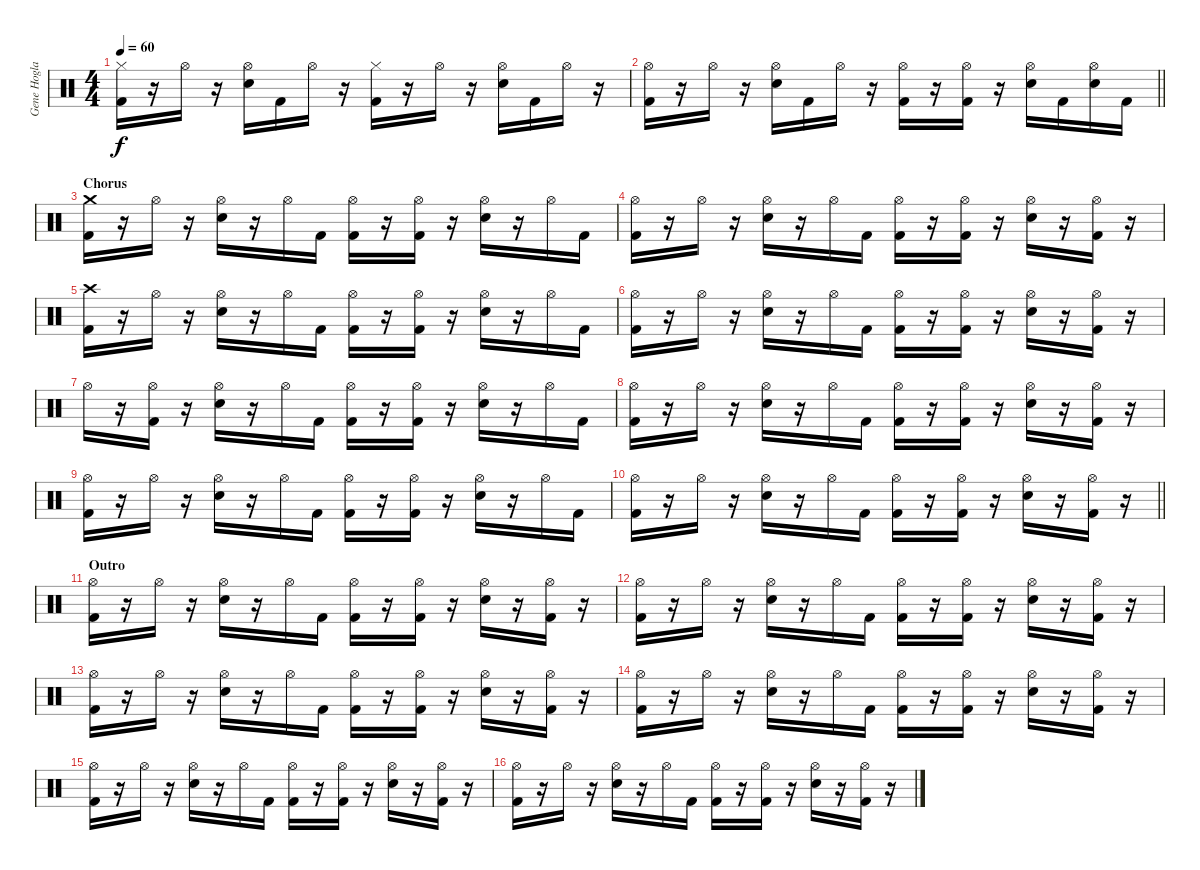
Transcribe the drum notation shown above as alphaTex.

\track ("Gene Hoglan" "Gene Hogla") {instrument percussion}
\staff {score}
\articulation defaults
\ts (4 4)
\tempo 60
\clef neutral
\ks c
("Hi-Hat (closed)" "Kick (hit) 2").16{dy f} r.16 "Hi-Hat (open)".16 r.16 ("Hi-Hat (open)" "Snare (hit) 2").16 "Kick (hit) 2".16 "Hi-Hat (open)".16 r.16 ("Hi-Hat (closed)" "Kick (hit) 2").16 r.16 "Hi-Hat (open)".16 r.16 ("Hi-Hat (open)" "Snare (hit) 2").16 "Kick (hit) 2".16 "Hi-Hat (open)".16 r.16 |
\barLineRight lightlight
("Hi-Hat (open)" "Kick (hit) 2").16 r.16 "Hi-Hat (open)".16 r.16 ("Hi-Hat (open)" "Snare (hit) 2").16 "Kick (hit) 2".16 "Hi-Hat (open)".16 r.16 ("Hi-Hat (open)" "Kick (hit) 2").16 r.16 ("Hi-Hat (open)" "Kick (hit) 2").16 r.16 ("Hi-Hat (open)" "Snare (hit) 2").16 "Kick (hit) 2".16 ("Hi-Hat (open)" "Snare (hit) 2").16 "Kick (hit) 2".16 |
\section ("" "Chorus")
("Crash medium (hit)" "Kick (hit) 2").16 r.16 "Hi-Hat (open)".16 r.16 ("Hi-Hat (open)" "Snare (hit) 2").16 r.16 "Hi-Hat (open)".16 "Kick (hit) 2".16 ("Hi-Hat (open)" "Kick (hit) 2").16 r.16 ("Hi-Hat (open)" "Kick (hit) 2").16 r.16 ("Hi-Hat (open)" "Snare (hit) 2").16 r.16 "Hi-Hat (open)".16 "Kick (hit) 2".16 |
("Hi-Hat (open)" "Kick (hit) 2").16 r.16 "Hi-Hat (open)".16 r.16 ("Hi-Hat (open)" "Snare (hit) 2").16 r.16 "Hi-Hat (open)".16 "Kick (hit) 2".16 ("Hi-Hat (open)" "Kick (hit) 2").16 r.16 ("Hi-Hat (open)" "Kick (hit) 2").16 r.16 ("Hi-Hat (open)" "Snare (hit) 2").16 r.16 ("Hi-Hat (open)" "Kick (hit) 2").16 r.16 |
("Crash high (hit)" "Kick (hit) 2").16 r.16 "Hi-Hat (open)".16 r.16 ("Hi-Hat (open)" "Snare (hit) 2").16 r.16 "Hi-Hat (open)".16 "Kick (hit) 2".16 ("Hi-Hat (open)" "Kick (hit) 2").16 r.16 ("Hi-Hat (open)" "Kick (hit) 2").16 r.16 ("Hi-Hat (open)" "Snare (hit) 2").16 r.16 "Hi-Hat (open)".16 "Kick (hit) 2".16 |
("Hi-Hat (open)" "Kick (hit) 2").16 r.16 "Hi-Hat (open)".16 r.16 ("Hi-Hat (open)" "Snare (hit) 2").16 r.16 "Hi-Hat (open)".16 "Kick (hit) 2".16 ("Hi-Hat (open)" "Kick (hit) 2").16 r.16 ("Hi-Hat (open)" "Kick (hit) 2").16 r.16 ("Hi-Hat (open)" "Snare (hit) 2").16 r.16 ("Hi-Hat (open)" "Kick (hit) 2").16 r.16 |
"Hi-Hat (open)".16 r.16 ("Hi-Hat (open)" "Kick (hit) 2").16 r.16 ("Hi-Hat (open)" "Snare (hit) 2").16 r.16 "Hi-Hat (open)".16 "Kick (hit) 2".16 ("Hi-Hat (open)" "Kick (hit) 2").16 r.16 ("Hi-Hat (open)" "Kick (hit) 2").16 r.16 ("Hi-Hat (open)" "Snare (hit) 2").16 r.16 "Hi-Hat (open)".16 "Kick (hit) 2".16 |
("Hi-Hat (open)" "Kick (hit) 2").16 r.16 "Hi-Hat (open)".16 r.16 ("Hi-Hat (open)" "Snare (hit) 2").16 r.16 "Hi-Hat (open)".16 "Kick (hit) 2".16 ("Hi-Hat (open)" "Kick (hit) 2").16 r.16 ("Hi-Hat (open)" "Kick (hit) 2").16 r.16 ("Hi-Hat (open)" "Snare (hit) 2").16 r.16 ("Hi-Hat (open)" "Kick (hit) 2").16 r.16 |
("Hi-Hat (open)" "Kick (hit) 2").16 r.16 "Hi-Hat (open)".16 r.16 ("Hi-Hat (open)" "Snare (hit) 2").16 r.16 "Hi-Hat (open)".16 "Kick (hit) 2".16 ("Hi-Hat (open)" "Kick (hit) 2").16 r.16 ("Hi-Hat (open)" "Kick (hit) 2").16 r.16 ("Hi-Hat (open)" "Snare (hit) 2").16 r.16 "Hi-Hat (open)".16 "Kick (hit) 2".16 |
\barLineRight lightlight
("Hi-Hat (open)" "Kick (hit) 2").16 r.16 "Hi-Hat (open)".16 r.16 ("Hi-Hat (open)" "Snare (hit) 2").16 r.16 "Hi-Hat (open)".16 "Kick (hit) 2".16 ("Hi-Hat (open)" "Kick (hit) 2").16 r.16 ("Hi-Hat (open)" "Kick (hit) 2").16 r.16 ("Hi-Hat (open)" "Snare (hit) 2").16 r.16 ("Hi-Hat (open)" "Kick (hit) 2").16 r.16 |
\section ("" "Outro")
("Hi-Hat (open)" "Kick (hit) 2").16 r.16 "Hi-Hat (open)".16 r.16 ("Hi-Hat (open)" "Snare (hit) 2").16 r.16 "Hi-Hat (open)".16 "Kick (hit) 2".16 ("Hi-Hat (open)" "Kick (hit) 2").16 r.16 ("Hi-Hat (open)" "Kick (hit) 2").16 r.16 ("Hi-Hat (open)" "Snare (hit) 2").16 r.16 ("Hi-Hat (open)" "Kick (hit) 2").16 r.16 |
("Hi-Hat (open)" "Kick (hit) 2").16 r.16 "Hi-Hat (open)".16 r.16 ("Hi-Hat (open)" "Snare (hit) 2").16 r.16 "Hi-Hat (open)".16 "Kick (hit) 2".16 ("Hi-Hat (open)" "Kick (hit) 2").16 r.16 ("Hi-Hat (open)" "Kick (hit) 2").16 r.16 ("Hi-Hat (open)" "Snare (hit) 2").16 r.16 ("Hi-Hat (open)" "Kick (hit) 2").16 r.16 |
("Hi-Hat (open)" "Kick (hit) 2").16 r.16 "Hi-Hat (open)".16 r.16 ("Hi-Hat (open)" "Snare (hit) 2").16 r.16 "Hi-Hat (open)".16 "Kick (hit) 2".16 ("Hi-Hat (open)" "Kick (hit) 2").16 r.16 ("Hi-Hat (open)" "Kick (hit) 2").16 r.16 ("Hi-Hat (open)" "Snare (hit) 2").16 r.16 ("Hi-Hat (open)" "Kick (hit) 2").16 r.16 |
("Hi-Hat (open)" "Kick (hit) 2").16 r.16 "Hi-Hat (open)".16 r.16 ("Hi-Hat (open)" "Snare (hit) 2").16 r.16 "Hi-Hat (open)".16 "Kick (hit) 2".16 ("Hi-Hat (open)" "Kick (hit) 2").16 r.16 ("Hi-Hat (open)" "Kick (hit) 2").16 r.16 ("Hi-Hat (open)" "Snare (hit) 2").16 r.16 ("Hi-Hat (open)" "Kick (hit) 2").16 r.16 |
("Hi-Hat (open)" "Kick (hit) 2").16 r.16 "Hi-Hat (open)".16 r.16 ("Hi-Hat (open)" "Snare (hit) 2").16 r.16 "Hi-Hat (open)".16 "Kick (hit) 2".16 ("Hi-Hat (open)" "Kick (hit) 2").16 r.16 ("Hi-Hat (open)" "Kick (hit) 2").16 r.16 ("Hi-Hat (open)" "Snare (hit) 2").16 r.16 ("Hi-Hat (open)" "Kick (hit) 2").16 r.16 |
("Hi-Hat (open)" "Kick (hit) 2").16 r.16 "Hi-Hat (open)".16 r.16 ("Hi-Hat (open)" "Snare (hit) 2").16 r.16 "Hi-Hat (open)".16 "Kick (hit) 2".16 ("Hi-Hat (open)" "Kick (hit) 2").16 r.16 ("Hi-Hat (open)" "Kick (hit) 2").16 r.16 ("Hi-Hat (open)" "Snare (hit) 2").16 r.16 ("Hi-Hat (open)" "Kick (hit) 2").16 r.16
